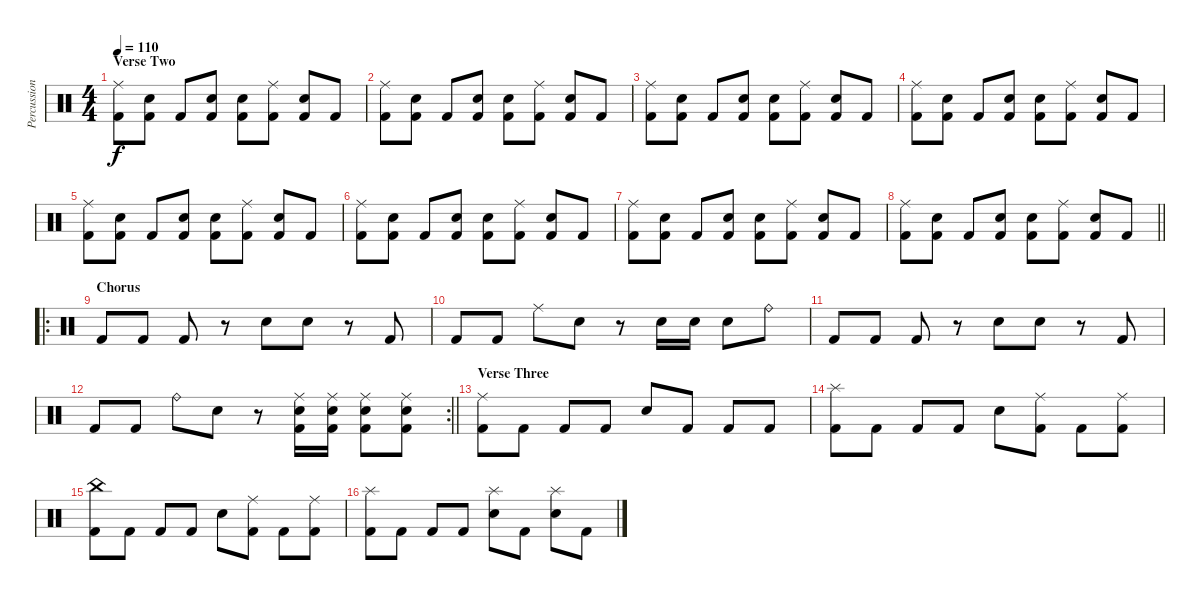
\track ("Percussion" "Percussion") {instrument percussion}
\staff {score}
\articulation defaults
\ts (4 4)
\section ("" "Verse Two")
\tempo 110
\clef neutral
\ks c
("Ride (middle)" "Kick (hit) 2").8{dy f} ("Electric Snare (hit)" "Kick (hit) 2").8 "Kick (hit) 2".8 ("Electric Snare (hit)" "Kick (hit) 2").8 ("Electric Snare (hit)" "Kick (hit) 2").8 ("Ride (middle)" "Kick (hit) 2").8 ("Electric Snare (hit)" "Kick (hit) 2").8 "Kick (hit) 2".8 |
("Ride (middle)" "Kick (hit) 2").8 ("Electric Snare (hit)" "Kick (hit) 2").8 "Kick (hit) 2".8 ("Electric Snare (hit)" "Kick (hit) 2").8 ("Electric Snare (hit)" "Kick (hit) 2").8 ("Ride (middle)" "Kick (hit) 2").8 ("Electric Snare (hit)" "Kick (hit) 2").8 "Kick (hit) 2".8 |
("Ride (middle)" "Kick (hit) 2").8 ("Electric Snare (hit)" "Kick (hit) 2").8 "Kick (hit) 2".8 ("Electric Snare (hit)" "Kick (hit) 2").8 ("Electric Snare (hit)" "Kick (hit) 2").8 ("Ride (middle)" "Kick (hit) 2").8 ("Electric Snare (hit)" "Kick (hit) 2").8 "Kick (hit) 2".8 |
("Ride (middle)" "Kick (hit) 2").8 ("Electric Snare (hit)" "Kick (hit) 2").8 "Kick (hit) 2".8 ("Electric Snare (hit)" "Kick (hit) 2").8 ("Electric Snare (hit)" "Kick (hit) 2").8 ("Ride (middle)" "Kick (hit) 2").8 ("Electric Snare (hit)" "Kick (hit) 2").8 "Kick (hit) 2".8 |
("Ride (middle)" "Kick (hit) 2").8 ("Electric Snare (hit)" "Kick (hit) 2").8 "Kick (hit) 2".8 ("Electric Snare (hit)" "Kick (hit) 2").8 ("Electric Snare (hit)" "Kick (hit) 2").8 ("Ride (middle)" "Kick (hit) 2").8 ("Electric Snare (hit)" "Kick (hit) 2").8 "Kick (hit) 2".8 |
("Ride (middle)" "Kick (hit) 2").8 ("Electric Snare (hit)" "Kick (hit) 2").8 "Kick (hit) 2".8 ("Electric Snare (hit)" "Kick (hit) 2").8 ("Electric Snare (hit)" "Kick (hit) 2").8 ("Ride (middle)" "Kick (hit) 2").8 ("Electric Snare (hit)" "Kick (hit) 2").8 "Kick (hit) 2".8 |
("Ride (middle)" "Kick (hit) 2").8 ("Electric Snare (hit)" "Kick (hit) 2").8 "Kick (hit) 2".8 ("Electric Snare (hit)" "Kick (hit) 2").8 ("Electric Snare (hit)" "Kick (hit) 2").8 ("Ride (middle)" "Kick (hit) 2").8 ("Electric Snare (hit)" "Kick (hit) 2").8 "Kick (hit) 2".8 |
\barLineRight lightlight
("Ride (middle)" "Kick (hit) 2").8 ("Electric Snare (hit)" "Kick (hit) 2").8 "Kick (hit) 2".8 ("Electric Snare (hit)" "Kick (hit) 2").8 ("Electric Snare (hit)" "Kick (hit) 2").8 ("Ride (middle)" "Kick (hit) 2").8 ("Electric Snare (hit)" "Kick (hit) 2").8 "Kick (hit) 2".8 |
\ro
\section ("" "Chorus")
"Kick (hit) 2".8 "Kick (hit) 2".8 "Kick (hit) 2".8 r.8 "Electric Snare (hit)".8 "Electric Snare (hit)".8 r.8 "Kick (hit) 2".8 |
"Kick (hit) 2".8 "Kick (hit) 2".8 "Ride (middle)".8 "Electric Snare (hit)".8 r.8 "Electric Snare (hit)".16 "Electric Snare (hit)".16 "Electric Snare (hit)".8 "Ride (bell)".8 |
"Kick (hit) 2".8 "Kick (hit) 2".8 "Kick (hit) 2".8 r.8 "Electric Snare (hit)".8 "Electric Snare (hit)".8 r.8 "Kick (hit) 2".8 |
\rc 2
\barLineRight lightlight "Kick (hit) 2".8 "Kick (hit) 2".8 "Ride (bell)".8 "Electric Snare (hit)".8
r.8 ("Ride (middle)" "Electric Snare (hit)" "Kick (hit) 2").16 ("Ride (middle)" "Electric Snare (hit)" "Kick (hit) 2").16 ("Ride (middle)" "Electric Snare (hit)" "Kick (hit) 2").8 ("Ride (middle)" "Electric Snare (hit)" "Kick (hit) 2").8 |
\section ("" "Verse Three")
("Ride (middle)" "Kick (hit) 2").8 "Kick (hit) 2".8 "Kick (hit) 2".8 "Kick (hit) 2".8 "Electric Snare (hit)".8 "Kick (hit) 2".8 "Kick (hit) 2".8 "Kick (hit) 2".8 |
("Splash (hit)" "Kick (hit) 2").8 "Kick (hit) 2".8 "Kick (hit) 2".8 "Kick (hit) 2".8 "Electric Snare (hit)".8 ("Ride (middle)" "Kick (hit) 2").8 "Kick (hit) 2".8 ("Ride (middle)" "Kick (hit) 2").8 |
("China (hit)" "Kick (hit) 2").8 "Kick (hit) 2".8 "Kick (hit) 2".8 "Kick (hit) 2".8 "Electric Snare (hit)".8 ("Ride (middle)" "Kick (hit) 2").8 "Kick (hit) 2".8 ("Ride (middle)" "Kick (hit) 2").8 |
("Splash (hit)" "Kick (hit) 2").8 "Kick (hit) 2".8 "Kick (hit) 2".8 "Kick (hit) 2".8 ("Splash (hit)" "Electric Snare (hit)").8 "Kick (hit) 2".8 ("Splash (hit)" "Electric Snare (hit)").8 "Kick (hit) 2".8
